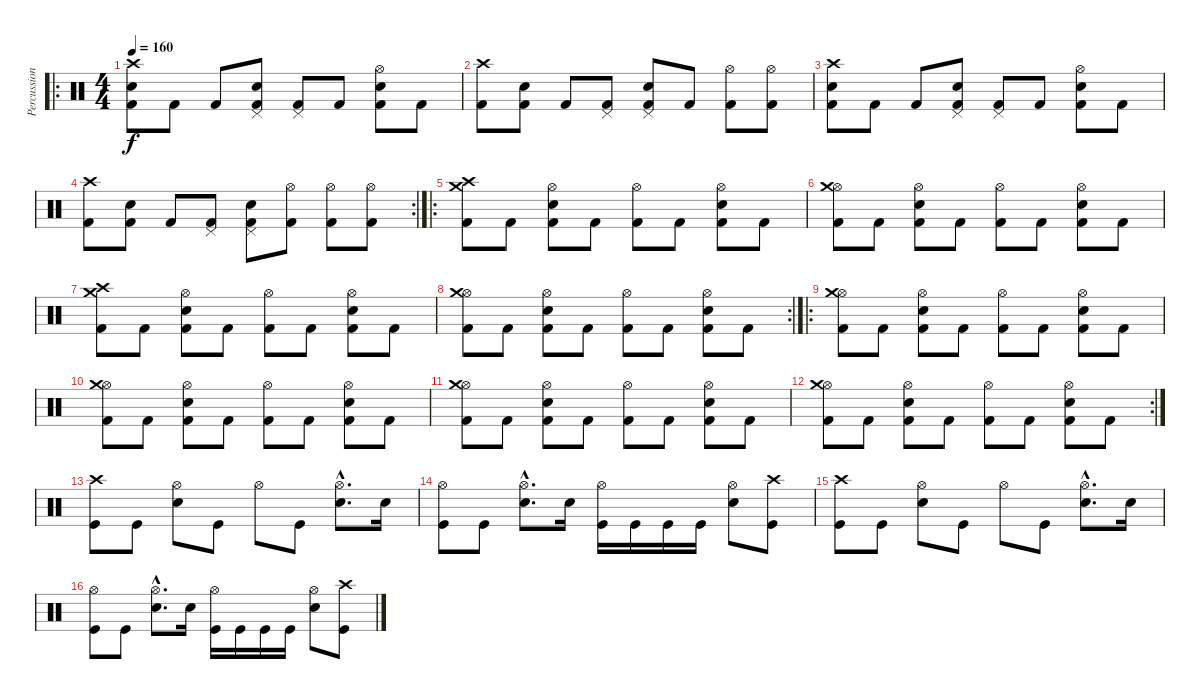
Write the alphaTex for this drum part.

\track ("Percussion" "Percussion") {instrument percussion}
\staff {score}
\articulation defaults
\ro
\ts (4 4)
\tempo 160
\clef neutral
\ks c
("Crash high (hit)" "Kick (hit) 2" "Electric Snare (hit)").8{dy f} "Kick (hit) 2".8 "Kick (hit) 2".8 ("Pedal Hi-Hat (hit)" "Kick (hit) 2" "Electric Snare (hit)").8 ("Pedal Hi-Hat (hit)" "Kick (hit) 2").8 "Kick (hit) 2".8 ("Hi-Hat (open)" "Kick (hit) 2" "Electric Snare (hit)").8 "Kick (hit) 2".8 |
("Crash high (hit)" "Kick (hit) 2").8 ("Kick (hit) 2" "Electric Snare (hit)").8 "Kick (hit) 2".8 ("Pedal Hi-Hat (hit)" "Kick (hit) 2").8 ("Pedal Hi-Hat (hit)" "Kick (hit) 2" "Electric Snare (hit)").8 "Kick (hit) 2".8 ("Hi-Hat (open)" "Kick (hit) 2").8 ("Hi-Hat (open)" "Kick (hit) 2").8 |
("Crash high (hit)" "Kick (hit) 2" "Electric Snare (hit)").8 "Kick (hit) 2".8 "Kick (hit) 2".8 ("Pedal Hi-Hat (hit)" "Kick (hit) 2" "Electric Snare (hit)").8 ("Pedal Hi-Hat (hit)" "Kick (hit) 2").8 "Kick (hit) 2".8 ("Hi-Hat (open)" "Kick (hit) 2" "Electric Snare (hit)").8 "Kick (hit) 2".8 |
\rc 2
("Crash high (hit)" "Kick (hit) 2").8 ("Kick (hit) 2" "Electric Snare (hit)").8 "Kick (hit) 2".8 ("Pedal Hi-Hat (hit)" "Kick (hit) 2").8 ("Pedal Hi-Hat (hit)" "Kick (hit) 2" "Electric Snare (hit)").8 ("Hi-Hat (open)" "Kick (hit) 2").8 ("Hi-Hat (open)" "Kick (hit) 2").8 ("Hi-Hat (open)" "Kick (hit) 2").8 |
\ro
("Crash high (hit)" "Crash medium (hit)" "Kick (hit) 2").8 "Kick (hit) 2".8 ("Hi-Hat (open)" "Electric Snare (hit)" "Kick (hit) 2").8 "Kick (hit) 2".8 ("Hi-Hat (open)" "Kick (hit) 2").8 "Kick (hit) 2".8 ("Hi-Hat (open)" "Electric Snare (hit)" "Kick (hit) 2").8 "Kick (hit) 2".8 |
("Hi-Hat (open)" "Crash medium (hit)" "Kick (hit) 2").8 "Kick (hit) 2".8 ("Hi-Hat (open)" "Electric Snare (hit)" "Kick (hit) 2").8 "Kick (hit) 2".8 ("Hi-Hat (open)" "Kick (hit) 2").8 "Kick (hit) 2".8 ("Hi-Hat (open)" "Electric Snare (hit)" "Kick (hit) 2").8 "Kick (hit) 2".8 |
("Crash high (hit)" "Crash medium (hit)" "Kick (hit) 2").8 "Kick (hit) 2".8 ("Hi-Hat (open)" "Electric Snare (hit)" "Kick (hit) 2").8 "Kick (hit) 2".8 ("Hi-Hat (open)" "Kick (hit) 2").8 "Kick (hit) 2".8 ("Hi-Hat (open)" "Electric Snare (hit)" "Kick (hit) 2").8 "Kick (hit) 2".8 |
\rc 2
("Hi-Hat (open)" "Crash medium (hit)" "Kick (hit) 2").8 "Kick (hit) 2".8 ("Hi-Hat (open)" "Electric Snare (hit)" "Kick (hit) 2").8 "Kick (hit) 2".8 ("Hi-Hat (open)" "Kick (hit) 2").8 "Kick (hit) 2".8 ("Hi-Hat (open)" "Electric Snare (hit)" "Kick (hit) 2").8 "Kick (hit) 2".8 |
\ro
("Hi-Hat (open)" "Crash medium (hit)" "Kick (hit) 2").8 "Kick (hit) 2".8 ("Hi-Hat (open)" "Electric Snare (hit)" "Kick (hit) 2").8 "Kick (hit) 2".8 ("Hi-Hat (open)" "Kick (hit) 2").8 "Kick (hit) 2".8 ("Hi-Hat (open)" "Electric Snare (hit)" "Kick (hit) 2").8 "Kick (hit) 2".8 |
("Hi-Hat (open)" "Crash medium (hit)" "Kick (hit) 2").8 "Kick (hit) 2".8 ("Hi-Hat (open)" "Electric Snare (hit)" "Kick (hit) 2").8 "Kick (hit) 2".8 ("Hi-Hat (open)" "Kick (hit) 2").8 "Kick (hit) 2".8 ("Hi-Hat (open)" "Electric Snare (hit)" "Kick (hit) 2").8 "Kick (hit) 2".8 |
("Hi-Hat (open)" "Crash medium (hit)" "Kick (hit) 2").8 "Kick (hit) 2".8 ("Hi-Hat (open)" "Electric Snare (hit)" "Kick (hit) 2").8 "Kick (hit) 2".8 ("Hi-Hat (open)" "Kick (hit) 2").8 "Kick (hit) 2".8 ("Hi-Hat (open)" "Electric Snare (hit)" "Kick (hit) 2").8 "Kick (hit) 2".8 |
\rc 2
("Hi-Hat (open)" "Crash medium (hit)" "Kick (hit) 2").8 "Kick (hit) 2".8 ("Hi-Hat (open)" "Electric Snare (hit)" "Kick (hit) 2").8 "Kick (hit) 2".8 ("Hi-Hat (open)" "Kick (hit) 2").8 "Kick (hit) 2".8 ("Hi-Hat (open)" "Electric Snare (hit)" "Kick (hit) 2").8 "Kick (hit) 2".8 |
("Crash high (hit)" "Kick (hit)").8 "Kick (hit)".8 ("Hi-Hat (open)" "Electric Snare (hit)").8 "Kick (hit)".8 "Hi-Hat (open)".8 "Kick (hit)".8 ("Hi-Hat (open)"{hac} "Electric Snare (hit)"{hac}).8{d} "Electric Snare (hit)".16 |
("Hi-Hat (open)" "Kick (hit)").8 "Kick (hit)".8 ("Hi-Hat (open)"{hac} "Electric Snare (hit)"{hac}).8{d} "Electric Snare (hit)".16 ("Hi-Hat (open)" "Kick (hit)").16 "Kick (hit)".16 "Kick (hit)".16 "Kick (hit)".16 ("Hi-Hat (open)" "Electric Snare (hit)").8 ("Crash high (hit)" "Kick (hit)").8 |
("Crash high (hit)" "Kick (hit)").8 "Kick (hit)".8 ("Hi-Hat (open)" "Electric Snare (hit)").8 "Kick (hit)".8 "Hi-Hat (open)".8 "Kick (hit)".8 ("Hi-Hat (open)"{hac} "Electric Snare (hit)"{hac}).8{d} "Electric Snare (hit)".16 |
("Hi-Hat (open)" "Kick (hit)").8 "Kick (hit)".8 ("Hi-Hat (open)"{hac} "Electric Snare (hit)"{hac}).8{d} "Electric Snare (hit)".16 ("Hi-Hat (open)" "Kick (hit)").16 "Kick (hit)".16 "Kick (hit)".16 "Kick (hit)".16 ("Hi-Hat (open)" "Electric Snare (hit)").8 ("Crash high (hit)" "Kick (hit)").8
